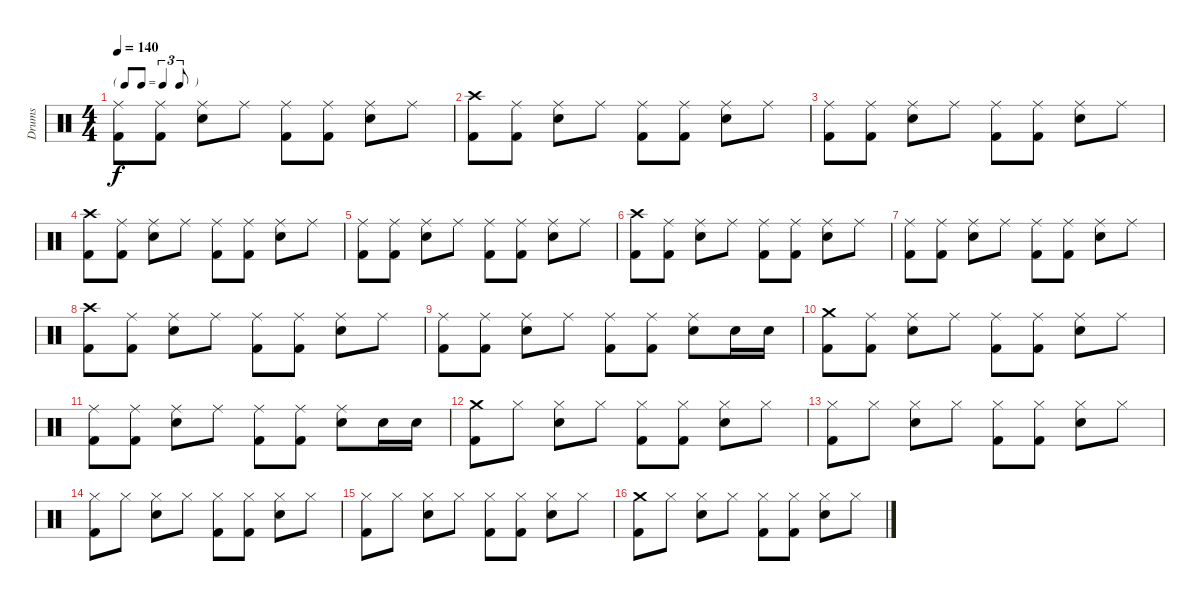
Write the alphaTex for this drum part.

\track ("Drums" "Drums") {instrument percussion}
\staff {score}
\articulation defaults
\ts (4 4)
\tf triplet8th
\tempo 140
\clef neutral
\ks c
("Ride (middle)" "Kick (hit) 2").8{dy f} ("Ride (middle)" "Kick (hit) 2").8 ("Ride (middle)" "Electric Snare (hit)").8 "Ride (middle)".8 ("Ride (middle)" "Kick (hit) 2").8 ("Ride (middle)" "Kick (hit) 2").8 ("Ride (middle)" "Electric Snare (hit)").8 "Ride (middle)".8 |
("Crash high (hit)" "Kick (hit) 2").8 ("Ride (middle)" "Kick (hit) 2").8 ("Ride (middle)" "Electric Snare (hit)").8 "Ride (middle)".8 ("Ride (middle)" "Kick (hit) 2").8 ("Ride (middle)" "Kick (hit) 2").8 ("Ride (middle)" "Electric Snare (hit)").8 "Ride (middle)".8 |
("Ride (middle)" "Kick (hit) 2").8 ("Ride (middle)" "Kick (hit) 2").8 ("Ride (middle)" "Electric Snare (hit)").8 "Ride (middle)".8 ("Ride (middle)" "Kick (hit) 2").8 ("Ride (middle)" "Kick (hit) 2").8 ("Ride (middle)" "Electric Snare (hit)").8 "Ride (middle)".8 |
("Crash high (hit)" "Kick (hit) 2").8 ("Ride (middle)" "Kick (hit) 2").8 ("Ride (middle)" "Electric Snare (hit)").8 "Ride (middle)".8 ("Ride (middle)" "Kick (hit) 2").8 ("Ride (middle)" "Kick (hit) 2").8 ("Ride (middle)" "Electric Snare (hit)").8 "Ride (middle)".8 |
("Ride (middle)" "Kick (hit) 2").8 ("Ride (middle)" "Kick (hit) 2").8 ("Ride (middle)" "Electric Snare (hit)").8 "Ride (middle)".8 ("Ride (middle)" "Kick (hit) 2").8 ("Ride (middle)" "Kick (hit) 2").8 ("Ride (middle)" "Electric Snare (hit)").8 "Ride (middle)".8 |
("Crash high (hit)" "Kick (hit) 2").8 ("Ride (middle)" "Kick (hit) 2").8 ("Ride (middle)" "Electric Snare (hit)").8 "Ride (middle)".8 ("Ride (middle)" "Kick (hit) 2").8 ("Ride (middle)" "Kick (hit) 2").8 ("Ride (middle)" "Electric Snare (hit)").8 "Ride (middle)".8 |
("Ride (middle)" "Kick (hit) 2").8 ("Ride (middle)" "Kick (hit) 2").8 ("Ride (middle)" "Electric Snare (hit)").8 "Ride (middle)".8 ("Ride (middle)" "Kick (hit) 2").8 ("Ride (middle)" "Kick (hit) 2").8 ("Ride (middle)" "Electric Snare (hit)").8 "Ride (middle)".8 |
("Crash high (hit)" "Kick (hit) 2").8 ("Ride (middle)" "Kick (hit) 2").8 ("Ride (middle)" "Electric Snare (hit)").8 "Ride (middle)".8 ("Ride (middle)" "Kick (hit) 2").8 ("Ride (middle)" "Kick (hit) 2").8 ("Ride (middle)" "Electric Snare (hit)").8 "Ride (middle)".8 |
("Ride (middle)" "Kick (hit) 2").8 ("Ride (middle)" "Kick (hit) 2").8 ("Ride (middle)" "Electric Snare (hit)").8 "Ride (middle)".8 ("Ride (middle)" "Kick (hit) 2").8 ("Ride (middle)" "Kick (hit) 2").8 ("Ride (middle)" "Electric Snare (hit)").8 "Electric Snare (hit)".16 "Electric Snare (hit)".16 |
("Crash medium (hit)" "Kick (hit) 2").8 ("Ride (middle)" "Kick (hit) 2").8 ("Ride (middle)" "Electric Snare (hit)").8 "Ride (middle)".8 ("Ride (middle)" "Kick (hit) 2").8 ("Ride (middle)" "Kick (hit) 2").8 ("Ride (middle)" "Electric Snare (hit)").8 "Ride (middle)".8 |
("Ride (middle)" "Kick (hit) 2").8 ("Ride (middle)" "Kick (hit) 2").8 ("Ride (middle)" "Electric Snare (hit)").8 "Ride (middle)".8 ("Ride (middle)" "Kick (hit) 2").8 ("Ride (middle)" "Kick (hit) 2").8 ("Ride (middle)" "Electric Snare (hit)").8 "Electric Snare (hit)".16 "Electric Snare (hit)".16 |
("Crash medium (hit)" "Kick (hit) 2").8 "Hi-Hat (closed)".8 ("Hi-Hat (closed)" "Electric Snare (hit)").8 "Hi-Hat (closed)".8 ("Hi-Hat (closed)" "Kick (hit) 2").8 ("Hi-Hat (closed)" "Kick (hit) 2").8 ("Hi-Hat (closed)" "Electric Snare (hit)").8 "Hi-Hat (closed)".8 |
("Hi-Hat (closed)" "Kick (hit) 2").8 "Hi-Hat (closed)".8 ("Hi-Hat (closed)" "Electric Snare (hit)").8 "Hi-Hat (closed)".8 ("Hi-Hat (closed)" "Kick (hit) 2").8 ("Hi-Hat (closed)" "Kick (hit) 2").8 ("Hi-Hat (closed)" "Electric Snare (hit)").8 "Hi-Hat (closed)".8 |
("Hi-Hat (closed)" "Kick (hit) 2").8 "Hi-Hat (closed)".8 ("Hi-Hat (closed)" "Electric Snare (hit)").8 "Hi-Hat (closed)".8 ("Hi-Hat (closed)" "Kick (hit) 2").8 ("Hi-Hat (closed)" "Kick (hit) 2").8 ("Hi-Hat (closed)" "Electric Snare (hit)").8 "Hi-Hat (closed)".8 |
("Hi-Hat (closed)" "Kick (hit) 2").8 "Hi-Hat (closed)".8 ("Hi-Hat (closed)" "Electric Snare (hit)").8 "Hi-Hat (closed)".8 ("Hi-Hat (closed)" "Kick (hit) 2").8 ("Hi-Hat (closed)" "Kick (hit) 2").8 ("Hi-Hat (closed)" "Electric Snare (hit)").8 "Hi-Hat (closed)".8 |
("Crash medium (hit)" "Kick (hit) 2").8 "Hi-Hat (closed)".8 ("Hi-Hat (closed)" "Electric Snare (hit)").8 "Hi-Hat (closed)".8 ("Hi-Hat (closed)" "Kick (hit) 2").8 ("Hi-Hat (closed)" "Kick (hit) 2").8 ("Hi-Hat (closed)" "Electric Snare (hit)").8 "Hi-Hat (closed)".8
